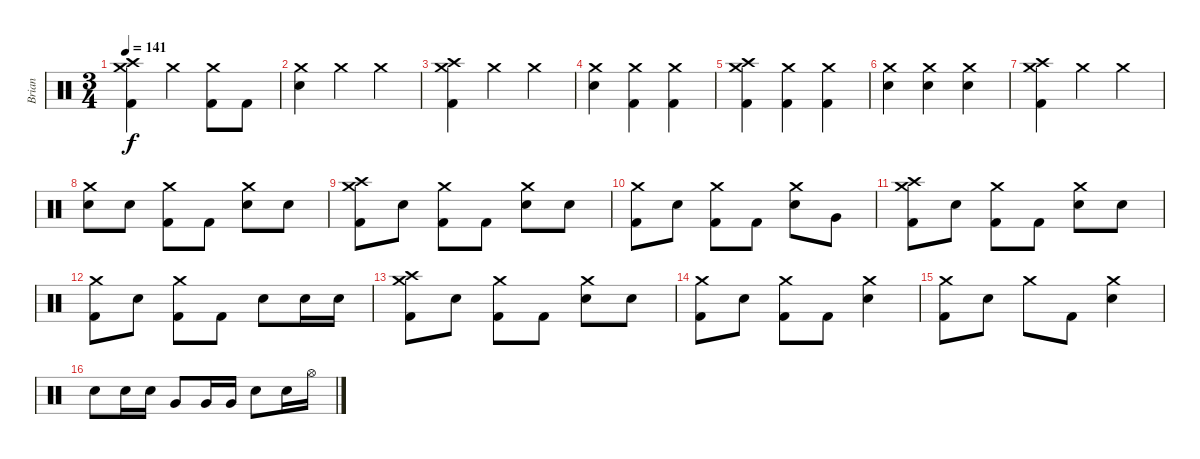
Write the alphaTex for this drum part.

\track ("Brian" "Brian") {instrument percussion}
\staff {score}
\articulation defaults
\ts (3 4)
\tempo 141
\clef neutral
\ks c
("Crash high (hit)" "Crash medium (hit)" "Kick (hit) 2").4{dy f} "Crash medium (hit)".4 ("Crash medium (hit)" "Kick (hit) 2").8 "Kick (hit) 2".8 |
("Crash medium (hit)" "Electric Snare (hit)").4 "Crash medium (hit)".4 "Crash medium (hit)".4 |
("Crash high (hit)" "Crash medium (hit)" "Kick (hit) 2").4 "Crash medium (hit)".4 "Crash medium (hit)".4 |
("Crash medium (hit)" "Electric Snare (hit)").4 ("Crash medium (hit)" "Kick (hit) 2").4 ("Crash medium (hit)" "Kick (hit) 2").4 |
("Crash high (hit)" "Crash medium (hit)" "Kick (hit) 2").4 ("Crash medium (hit)" "Kick (hit) 2").4 ("Crash medium (hit)" "Kick (hit) 2").4 |
("Crash medium (hit)" "Electric Snare (hit)").4 ("Crash medium (hit)" "Electric Snare (hit)").4 ("Crash medium (hit)" "Electric Snare (hit)").4 |
("Crash high (hit)" "Crash medium (hit)" "Kick (hit) 2").4 "Crash medium (hit)".4 "Crash medium (hit)".4 |
("Crash medium (hit)" "Electric Snare (hit)").8 "Electric Snare (hit)".8 ("Crash medium (hit)" "Kick (hit) 2").8 "Kick (hit) 2".8 ("Crash medium (hit)" "Electric Snare (hit)").8 "Electric Snare (hit)".8 |
("Crash high (hit)" "Crash medium (hit)" "Kick (hit) 2").8 "Electric Snare (hit)".8 ("Crash medium (hit)" "Kick (hit) 2").8 "Kick (hit) 2".8 ("Crash medium (hit)" "Electric Snare (hit)").8 "Electric Snare (hit)".8 |
("Crash medium (hit)" "Kick (hit) 2").8 "Electric Snare (hit)".8 ("Crash medium (hit)" "Kick (hit) 2").8 "Kick (hit) 2".8 ("Crash medium (hit)" "Electric Snare (hit)").8 "Very Low Tom (hit)".8 |
("Crash high (hit)" "Crash medium (hit)" "Kick (hit) 2").8 "Electric Snare (hit)".8 ("Crash medium (hit)" "Kick (hit) 2").8 "Kick (hit) 2".8 ("Crash medium (hit)" "Electric Snare (hit)").8 "Electric Snare (hit)".8 |
("Crash medium (hit)" "Kick (hit) 2").8 "Electric Snare (hit)".8 ("Crash medium (hit)" "Kick (hit) 2").8 "Kick (hit) 2".8 "Electric Snare (hit)".8 "Electric Snare (hit)".16 "Electric Snare (hit)".16 |
("Crash high (hit)" "Crash medium (hit)" "Kick (hit) 2").8 "Electric Snare (hit)".8 ("Crash medium (hit)" "Kick (hit) 2").8 "Kick (hit) 2".8 ("Crash medium (hit)" "Electric Snare (hit)").8 "Electric Snare (hit)".8 |
("Crash medium (hit)" "Kick (hit) 2").8 "Electric Snare (hit)".8 ("Crash medium (hit)" "Kick (hit) 2").8 "Kick (hit) 2".8 ("Crash medium (hit)" "Electric Snare (hit)").4 |
("Crash medium (hit)" "Kick (hit) 2").8 "Electric Snare (hit)".8 "Crash medium (hit)".8 "Kick (hit) 2".8 ("Crash medium (hit)" "Electric Snare (hit)").4 |
"Electric Snare (hit)".8 "Electric Snare (hit)".16 "Electric Snare (hit)".16 "Very Low Tom (hit)".8 "Very Low Tom (hit)".16 "Very Low Tom (hit)".16 "Electric Snare (hit)".8 "Electric Snare (hit)".16 "Hi-Hat (open)".16
